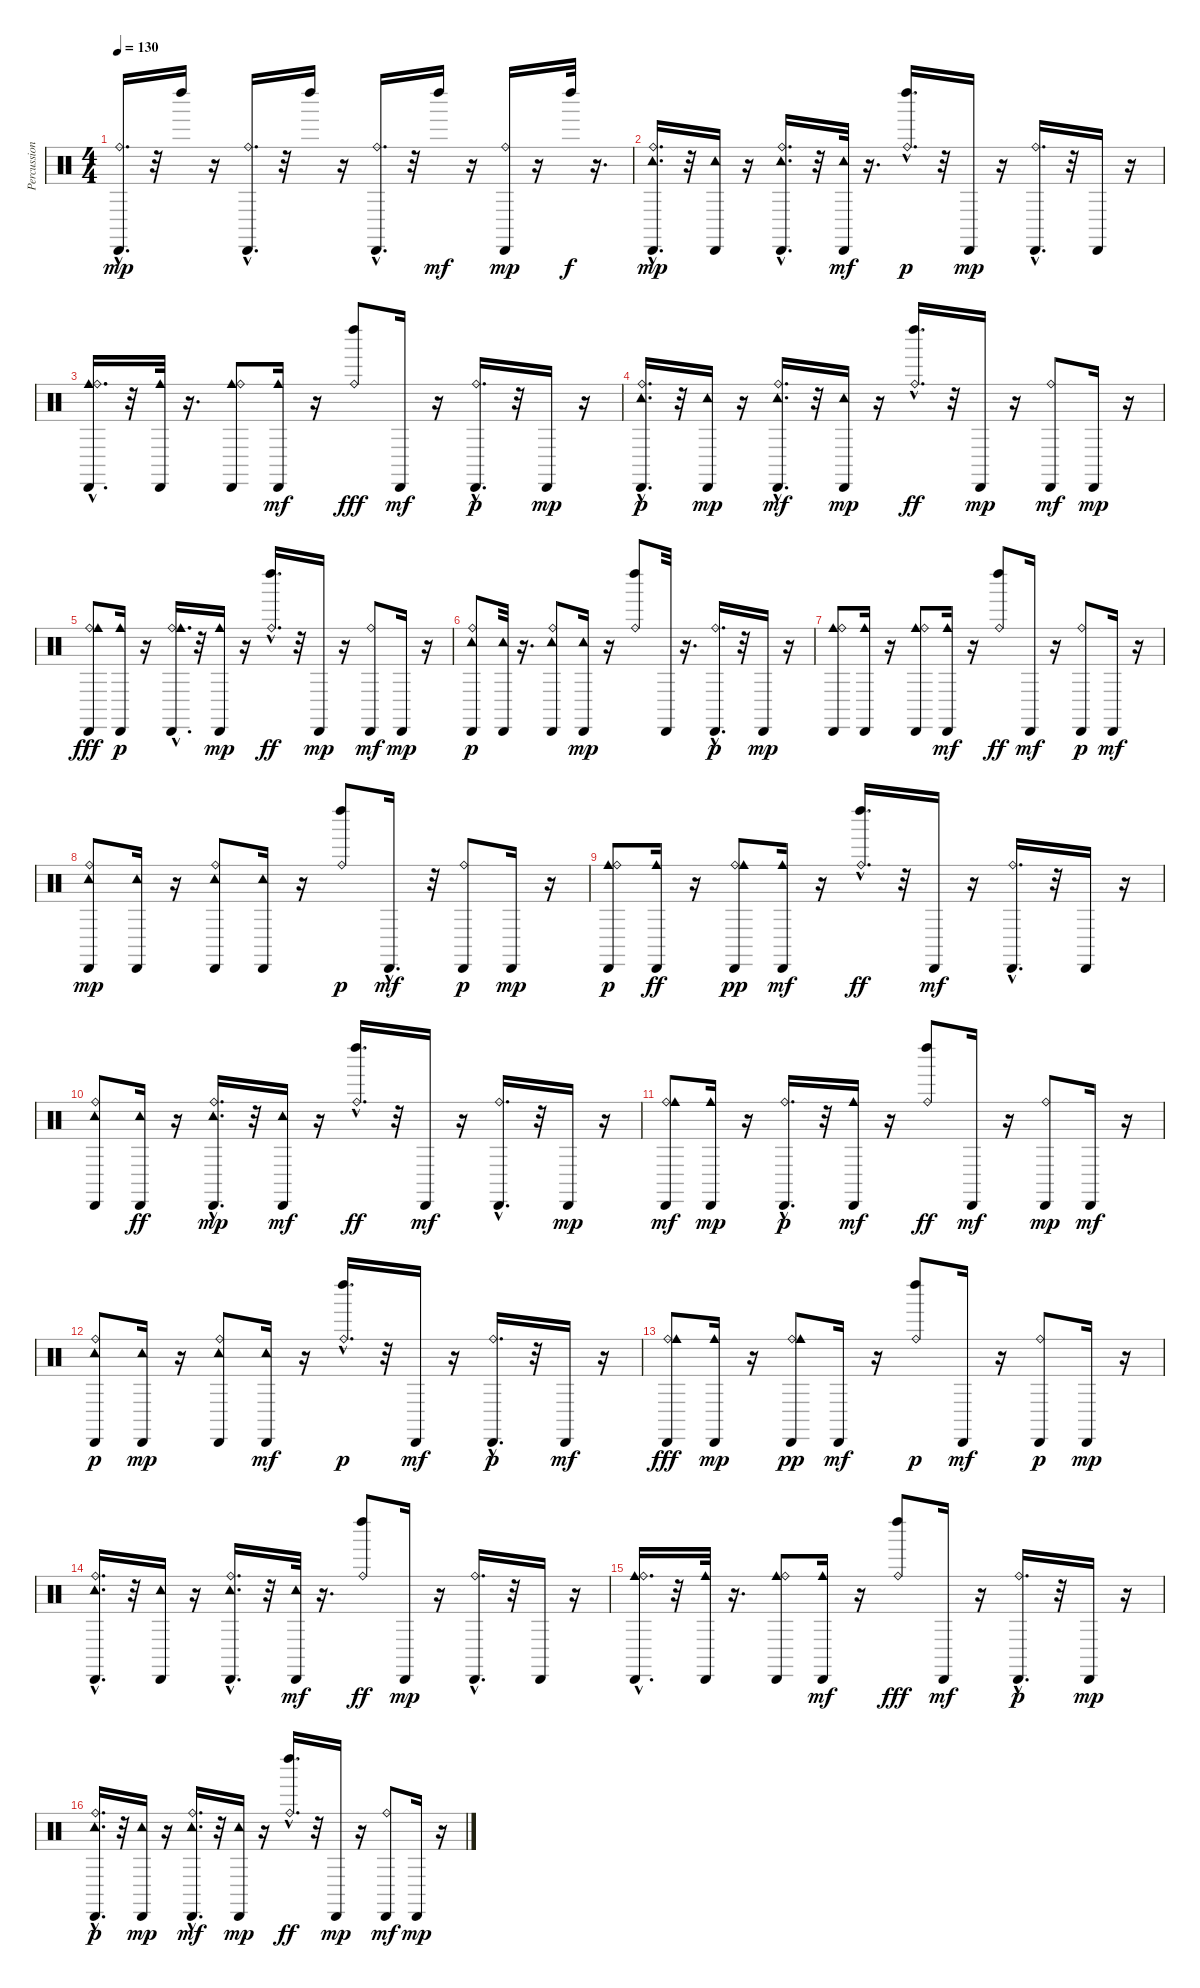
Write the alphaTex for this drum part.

\track ("Percussion" "Percussion") {instrument percussion}
\staff {score}
\articulation defaults
\ts (4 4)
\tempo 130
\clef neutral
\ks c
("Cabasa (hit)" "Ride (bell)"{hac}).16{d dy mp} r.32 "Left Maraca (hit)".16 r.16 ("Cabasa (hit)" "Ride (bell)"{hac}).16{d} r.32 "Left Maraca (hit)".16 r.16 ("Cabasa (hit)" "Ride (bell)"{hac}).16{d} r.32 "Left Maraca (hit)".16{dy mf} r.16 ("Cabasa (hit)" "Ride (bell)").16{dy mp} r.16 "Left Maraca (hit)".32{dy f} r.16{d} |
("Tambourine (hit)" "Cabasa (hit)" "Ride (bell)"{hac}).16{d dy mp} r.32 ("Tambourine (hit)" "Cabasa (hit)").16 r.16 ("Tambourine (hit)" "Cabasa (hit)" "Ride (bell)"{hac}).16{d} r.32 ("Tambourine (hit)" "Cabasa (hit)").32{dy mf} r.16{d} ("Left Maraca (hit)" "Ride (bell)"{hac}).16{d dy p} r.32 "Cabasa (hit)".16{dy mp} r.16 ("Ride (bell)"{hac} "Cabasa (hit)").16{d} r.32 "Cabasa (hit)".16 r.16 |
("Cowbell medium (hit)" "Cabasa (hit)" "Ride (bell)"{hac}).16{d} r.32 ("Cowbell medium (hit)" "Cabasa (hit)").32 r.16{d} ("Cowbell medium (hit)" "Cabasa (hit)" "Ride (bell)").8 ("Cowbell medium (hit)" "Cabasa (hit)").16{dy mf} r.16 ("Ride (bell)" "Left Maraca (hit)").8{dy fff} "Cabasa (hit)".16{dy mf} r.16 ("Cabasa (hit)" "Ride (bell)"{hac}).16{d dy p} r.32 "Cabasa (hit)".16{dy mp} r.16 |
("Tambourine (hit)" "Cabasa (hit)" "Ride (bell)"{hac}).16{d dy p} r.32 ("Tambourine (hit)" "Cabasa (hit)").16{dy mp} r.16 ("Ride (bell)"{hac} "Tambourine (hit)" "Cabasa (hit)").16{d dy mf} r.32 ("Tambourine (hit)" "Cabasa (hit)").16{dy mp} r.16 ("Ride (bell)"{hac} "Left Maraca (hit)").16{d dy ff} r.32 "Cabasa (hit)".16{dy mp} r.16 ("Ride (bell)" "Cabasa (hit)").8{dy mf} "Cabasa (hit)".16{dy mp} r.16 |
("Ride (bell)" "Cowbell medium (hit)" "Cabasa (hit)").8{dy fff} ("Cabasa (hit)" "Cowbell medium (hit)").16{dy p} r.16 ("Ride (bell)"{hac} "Cabasa (hit)" "Cowbell medium (hit)").16{d} r.32 ("Cowbell medium (hit)" "Cabasa (hit)").16{dy mp} r.16 ("Ride (bell)"{hac} "Left Maraca (hit)").16{d dy ff} r.32 "Cabasa (hit)".16{dy mp} r.16 ("Ride (bell)" "Cabasa (hit)").8{dy mf} "Cabasa (hit)".16{dy mp} r.16 |
("Tambourine (hit)" "Cabasa (hit)" "Ride (bell)").8{dy p} ("Tambourine (hit)" "Cabasa (hit)").32 r.16{d} ("Cabasa (hit)" "Tambourine (hit)" "Ride (bell)").8 ("Cabasa (hit)" "Tambourine (hit)").16{dy mp} r.16 ("Left Maraca (hit)" "Ride (bell)").8 "Cabasa (hit)".32 r.16{d} ("Cabasa (hit)" "Ride (bell)"{hac}).16{d dy p} r.32 "Cabasa (hit)".16{dy mp} r.16 |
("Cowbell medium (hit)" "Ride (bell)" "Cabasa (hit)").8 ("Cabasa (hit)" "Cowbell medium (hit)").16 r.16 ("Cabasa (hit)" "Cowbell medium (hit)" "Ride (bell)").8 ("Cowbell medium (hit)" "Cabasa (hit)").16{dy mf} r.16 ("Ride (bell)" "Left Maraca (hit)").8{dy ff} "Cabasa (hit)".16{dy mf} r.16 ("Cabasa (hit)" "Ride (bell)").8{dy p} "Cabasa (hit)".16{dy mf} r.16 |
("Tambourine (hit)" "Cabasa (hit)" "Ride (bell)").8{dy mp} ("Cabasa (hit)" "Tambourine (hit)").16 r.16 ("Cabasa (hit)" "Tambourine (hit)" "Ride (bell)").8 ("Tambourine (hit)" "Cabasa (hit)").16 r.16 ("Left Maraca (hit)" "Ride (bell)").8{dy p} "Cabasa (hit)"{hac}.16{d dy mf} r.32 ("Cabasa (hit)" "Ride (bell)").8{dy p} "Cabasa (hit)".16{dy mp} r.16 |
("Cowbell medium (hit)" "Cabasa (hit)" "Ride (bell)").8{dy p} ("Cabasa (hit)" "Cowbell medium (hit)").16{dy ff} r.16 ("Cabasa (hit)" "Ride (bell)" "Cowbell medium (hit)").8{dy pp} ("Cowbell medium (hit)" "Cabasa (hit)").16{dy mf} r.16 ("Ride (bell)"{hac} "Left Maraca (hit)").16{d dy ff} r.32 "Cabasa (hit)".16{dy mf} r.16 ("Ride (bell)"{hac} "Cabasa (hit)").16{d} r.32 "Cabasa (hit)".16 r.16 |
("Ride (bell)" "Tambourine (hit)" "Cabasa (hit)").8 ("Cabasa (hit)" "Tambourine (hit)").16{dy ff} r.16 ("Cabasa (hit)" "Tambourine (hit)" "Ride (bell)"{hac}).16{d dy mp} r.32 ("Tambourine (hit)" "Cabasa (hit)").16{dy mf} r.16 ("Ride (bell)"{hac} "Left Maraca (hit)").16{d dy ff} r.32 "Cabasa (hit)".16{dy mf} r.16 ("Ride (bell)"{hac} "Cabasa (hit)").16{d} r.32 "Cabasa (hit)".16{dy mp} r.16 |
("Ride (bell)" "Cowbell medium (hit)" "Cabasa (hit)").8{dy mf} ("Cowbell medium (hit)" "Cabasa (hit)").16{dy mp} r.16 ("Cabasa (hit)" "Ride (bell)"{hac}).16{d dy p} r.32 ("Cowbell medium (hit)" "Cabasa (hit)").16{dy mf} r.16 ("Ride (bell)" "Left Maraca (hit)").8{dy ff} "Cabasa (hit)".16{dy mf} r.16 ("Cabasa (hit)" "Ride (bell)").8{dy mp} "Cabasa (hit)".16{dy mf} r.16 |
("Tambourine (hit)" "Ride (bell)" "Cabasa (hit)").8{dy p} ("Tambourine (hit)" "Cabasa (hit)").16{dy mp} r.16 ("Cabasa (hit)" "Tambourine (hit)" "Ride (bell)").8 ("Tambourine (hit)" "Cabasa (hit)").16{dy mf} r.16 ("Left Maraca (hit)" "Ride (bell)"{hac}).16{d dy p} r.32 "Cabasa (hit)".16{dy mf} r.16 ("Cabasa (hit)" "Ride (bell)"{hac}).16{d dy p} r.32 "Cabasa (hit)".16{dy mf} r.16 |
("Ride (bell)" "Cabasa (hit)" "Cowbell medium (hit)").8{dy fff} ("Cowbell medium (hit)" "Cabasa (hit)").16{dy mp} r.16 ("Ride (bell)" "Cabasa (hit)" "Cowbell medium (hit)").8{dy pp} "Cabasa (hit)".16{dy mf} r.16 ("Left Maraca (hit)" "Ride (bell)").8{dy p} "Cabasa (hit)".16{dy mf} r.16 ("Cabasa (hit)" "Ride (bell)").8{dy p} "Cabasa (hit)".16{dy mp} r.16 |
("Tambourine (hit)" "Cabasa (hit)" "Ride (bell)"{hac}).16{d} r.32 ("Tambourine (hit)" "Cabasa (hit)").16 r.16 ("Tambourine (hit)" "Cabasa (hit)" "Ride (bell)"{hac}).16{d} r.32 ("Tambourine (hit)" "Cabasa (hit)").32{dy mf} r.16{d} ("Ride (bell)" "Left Maraca (hit)").8{dy ff} "Cabasa (hit)".16{dy mp} r.16 ("Ride (bell)"{hac} "Cabasa (hit)").16{d} r.32 "Cabasa (hit)".16 r.16 |
("Cowbell medium (hit)" "Cabasa (hit)" "Ride (bell)"{hac}).16{d} r.32 ("Cowbell medium (hit)" "Cabasa (hit)").32 r.16{d} ("Cowbell medium (hit)" "Cabasa (hit)" "Ride (bell)").8 ("Cowbell medium (hit)" "Cabasa (hit)").16{dy mf} r.16 ("Ride (bell)" "Left Maraca (hit)").8{dy fff} "Cabasa (hit)".16{dy mf} r.16 ("Cabasa (hit)" "Ride (bell)"{hac}).16{d dy p} r.32 "Cabasa (hit)".16{dy mp} r.16 |
("Tambourine (hit)" "Cabasa (hit)" "Ride (bell)"{hac}).16{d dy p} r.32 ("Tambourine (hit)" "Cabasa (hit)").16{dy mp} r.16 ("Ride (bell)"{hac} "Tambourine (hit)" "Cabasa (hit)").16{d dy mf} r.32 ("Tambourine (hit)" "Cabasa (hit)").16{dy mp} r.16 ("Ride (bell)"{hac} "Left Maraca (hit)").16{d dy ff} r.32 "Cabasa (hit)".16{dy mp} r.16 ("Ride (bell)" "Cabasa (hit)").8{dy mf} "Cabasa (hit)".16{dy mp} r.16
